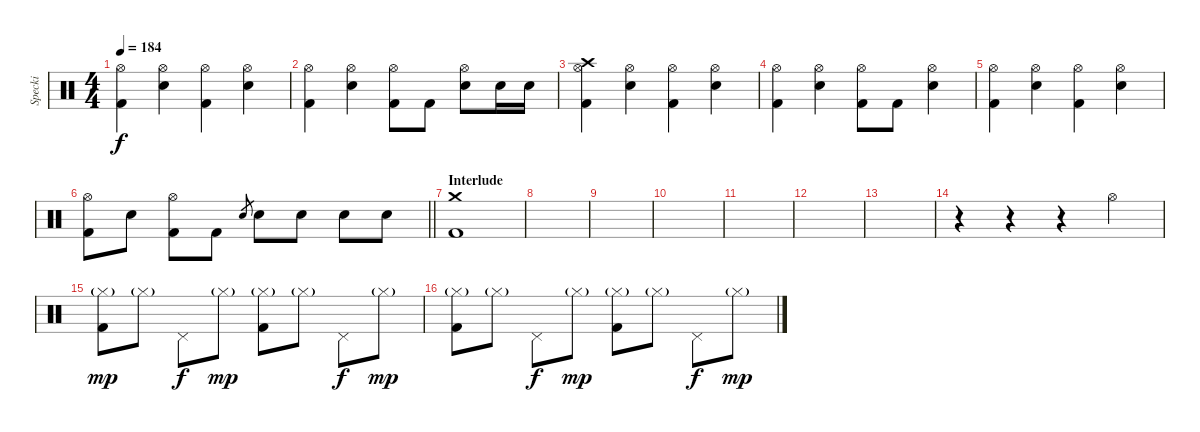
\track ("Specki" "Specki") {instrument percussion}
\staff {score}
\articulation defaults
\ts (4 4)
\tempo 184
\clef neutral
\ks c
("Hi-Hat (open)" "Kick (hit) 2").4{dy f} ("Hi-Hat (open)" "Electric Snare (hit)").4 ("Hi-Hat (open)" "Kick (hit) 2").4 ("Hi-Hat (open)" "Electric Snare (hit)").4 |
("Hi-Hat (open)" "Kick (hit) 2").4 ("Hi-Hat (open)" "Electric Snare (hit)").4 ("Hi-Hat (open)" "Kick (hit) 2").8 "Kick (hit) 2".8 ("Hi-Hat (open)" "Electric Snare (hit)").8 "Electric Snare (hit)".16 "Electric Snare (hit)".16 |
("Crash high (hit)" "Hi-Hat (open)" "Kick (hit) 2").4 ("Hi-Hat (open)" "Electric Snare (hit)").4 ("Hi-Hat (open)" "Kick (hit) 2").4 ("Hi-Hat (open)" "Electric Snare (hit)").4 |
("Hi-Hat (open)" "Kick (hit) 2").4 ("Hi-Hat (open)" "Electric Snare (hit)").4 ("Hi-Hat (open)" "Kick (hit) 2").8 "Kick (hit) 2".8 ("Hi-Hat (open)" "Electric Snare (hit)").4 |
("Hi-Hat (open)" "Kick (hit) 2").4 ("Hi-Hat (open)" "Electric Snare (hit)").4 ("Hi-Hat (open)" "Kick (hit) 2").4 ("Hi-Hat (open)" "Electric Snare (hit)").4 |
\barLineRight lightlight
("Hi-Hat (open)" "Kick (hit) 2").8 "Electric Snare (hit)".8 ("Hi-Hat (open)" "Kick (hit) 2").8 "Kick (hit) 2".8 "Electric Snare (hit)".8{gr} "Electric Snare (hit)".8 "Electric Snare (hit)".8 "Electric Snare (hit)".8 "Electric Snare (hit)".8 |
\section ("" "Interlude")
("Crash medium (hit)" "Kick (hit) 2").1 |
|
|
|
|
|
|
r.4 r.4 r.4 "Hi-Hat (open)".4 |
("Hi-Hat (closed)"{g} "Kick (hit) 2").8{dy mp} "Hi-Hat (closed)"{g}.8 "Pedal Hi-Hat (hit)".8{dy f} "Hi-Hat (closed)"{g}.8{dy mp} ("Hi-Hat (closed)"{g} "Kick (hit) 2").8 "Hi-Hat (closed)"{g}.8 "Pedal Hi-Hat (hit)".8{dy f} "Hi-Hat (closed)"{g}.8{dy mp} |
("Hi-Hat (closed)"{g} "Kick (hit) 2").8 "Hi-Hat (closed)"{g}.8 "Pedal Hi-Hat (hit)".8{dy f} "Hi-Hat (closed)"{g}.8{dy mp} ("Hi-Hat (closed)"{g} "Kick (hit) 2").8 "Hi-Hat (closed)"{g}.8 "Pedal Hi-Hat (hit)".8{dy f} "Hi-Hat (closed)"{g}.8{dy mp}
